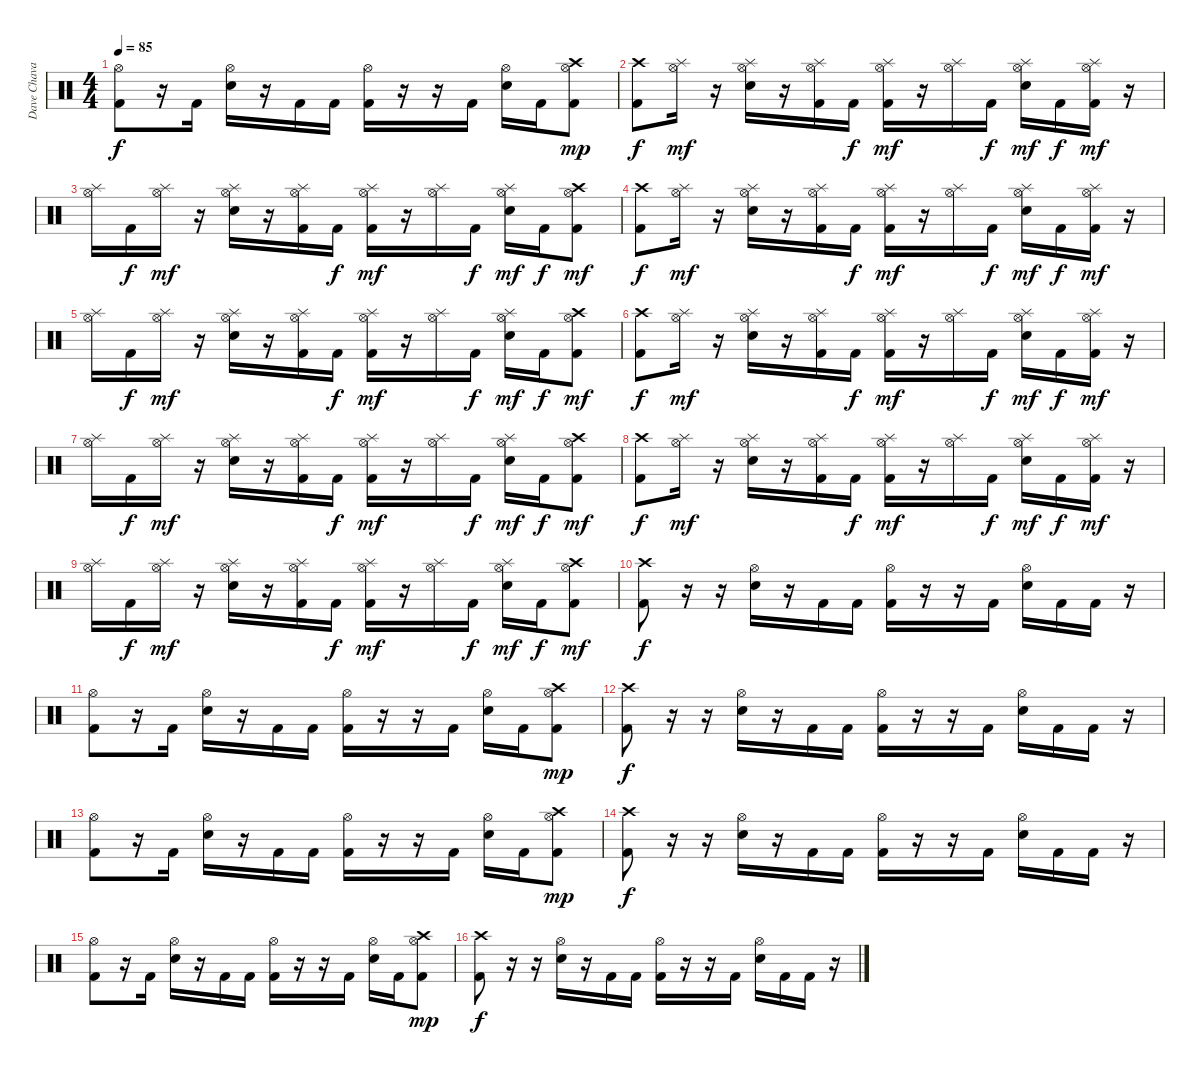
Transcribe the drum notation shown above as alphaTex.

\track ("Dave Chavarri" "Dave Chava") {instrument percussion}
\staff {score}
\articulation defaults
\ts (4 4)
\tempo 85
\clef neutral
\ks c
("Hi-Hat (open)" "Kick (hit) 2").8{dy f} r.16 "Kick (hit) 2".16 ("Hi-Hat (open)" "Snare (hit) 2").16 r.16 "Kick (hit) 2".16 "Kick (hit) 2".16 ("Hi-Hat (open)" "Kick (hit) 2").16 r.16 r.16 "Kick (hit) 2".16 ("Hi-Hat (open)" "Snare (hit) 2").16 "Kick (hit) 2".16 ("Crash high (hit)" "Hi-Hat (open)" "Kick (hit) 2").8{dy mp} |
("Crash high (hit)" "Kick (hit) 2").8{dy f} ("Hi-Hat (open)" "Splash (hit)").16{dy mf} r.16 ("Hi-Hat (open)" "Splash (hit)" "Snare (hit) 2").16 r.16 ("Hi-Hat (open)" "Splash (hit)" "Kick (hit) 2").16 "Kick (hit) 2".16{dy f} ("Hi-Hat (open)" "Splash (hit)" "Kick (hit) 2").16{dy mf} r.16 ("Hi-Hat (open)" "Splash (hit)").16 "Kick (hit) 2".16{dy f} ("Hi-Hat (open)" "Splash (hit)" "Snare (hit) 2").16{dy mf} "Kick (hit) 2".16{dy f} ("Hi-Hat (open)" "Splash (hit)" "Kick (hit) 2").16{dy mf} r.16 |
("Hi-Hat (open)" "Splash (hit)").16 "Kick (hit) 2".16{dy f} ("Hi-Hat (open)" "Splash (hit)").16{dy mf} r.16 ("Hi-Hat (open)" "Splash (hit)" "Snare (hit) 2").16 r.16 ("Hi-Hat (open)" "Splash (hit)" "Kick (hit) 2").16 "Kick (hit) 2".16{dy f} ("Hi-Hat (open)" "Splash (hit)" "Kick (hit) 2").16{dy mf} r.16 ("Hi-Hat (open)" "Splash (hit)").16 "Kick (hit) 2".16{dy f} ("Hi-Hat (open)" "Splash (hit)" "Snare (hit) 2").16{dy mf} "Kick (hit) 2".16{dy f} ("Hi-Hat (open)" "Crash high (hit)" "Kick (hit) 2").8{dy mf} |
("Crash high (hit)" "Kick (hit) 2").8{dy f} ("Hi-Hat (open)" "Splash (hit)").16{dy mf} r.16 ("Hi-Hat (open)" "Splash (hit)" "Snare (hit) 2").16 r.16 ("Hi-Hat (open)" "Splash (hit)" "Kick (hit) 2").16 "Kick (hit) 2".16{dy f} ("Hi-Hat (open)" "Splash (hit)" "Kick (hit) 2").16{dy mf} r.16 ("Hi-Hat (open)" "Splash (hit)").16 "Kick (hit) 2".16{dy f} ("Hi-Hat (open)" "Splash (hit)" "Snare (hit) 2").16{dy mf} "Kick (hit) 2".16{dy f} ("Hi-Hat (open)" "Splash (hit)" "Kick (hit) 2").16{dy mf} r.16 |
("Hi-Hat (open)" "Splash (hit)").16 "Kick (hit) 2".16{dy f} ("Hi-Hat (open)" "Splash (hit)").16{dy mf} r.16 ("Hi-Hat (open)" "Splash (hit)" "Snare (hit) 2").16 r.16 ("Hi-Hat (open)" "Splash (hit)" "Kick (hit) 2").16 "Kick (hit) 2".16{dy f} ("Hi-Hat (open)" "Splash (hit)" "Kick (hit) 2").16{dy mf} r.16 ("Hi-Hat (open)" "Splash (hit)").16 "Kick (hit) 2".16{dy f} ("Hi-Hat (open)" "Splash (hit)" "Snare (hit) 2").16{dy mf} "Kick (hit) 2".16{dy f} ("Hi-Hat (open)" "Crash high (hit)" "Kick (hit) 2").8{dy mf} |
("Crash high (hit)" "Kick (hit) 2").8{dy f} ("Hi-Hat (open)" "Splash (hit)").16{dy mf} r.16 ("Hi-Hat (open)" "Splash (hit)" "Snare (hit) 2").16 r.16 ("Hi-Hat (open)" "Splash (hit)" "Kick (hit) 2").16 "Kick (hit) 2".16{dy f} ("Hi-Hat (open)" "Splash (hit)" "Kick (hit) 2").16{dy mf} r.16 ("Hi-Hat (open)" "Splash (hit)").16 "Kick (hit) 2".16{dy f} ("Hi-Hat (open)" "Splash (hit)" "Snare (hit) 2").16{dy mf} "Kick (hit) 2".16{dy f} ("Hi-Hat (open)" "Splash (hit)" "Kick (hit) 2").16{dy mf} r.16 |
("Hi-Hat (open)" "Splash (hit)").16 "Kick (hit) 2".16{dy f} ("Hi-Hat (open)" "Splash (hit)").16{dy mf} r.16 ("Hi-Hat (open)" "Splash (hit)" "Snare (hit) 2").16 r.16 ("Hi-Hat (open)" "Splash (hit)" "Kick (hit) 2").16 "Kick (hit) 2".16{dy f} ("Hi-Hat (open)" "Splash (hit)" "Kick (hit) 2").16{dy mf} r.16 ("Hi-Hat (open)" "Splash (hit)").16 "Kick (hit) 2".16{dy f} ("Hi-Hat (open)" "Splash (hit)" "Snare (hit) 2").16{dy mf} "Kick (hit) 2".16{dy f} ("Hi-Hat (open)" "Crash high (hit)" "Kick (hit) 2").8{dy mf} |
("Crash high (hit)" "Kick (hit) 2").8{dy f} ("Hi-Hat (open)" "Splash (hit)").16{dy mf} r.16 ("Hi-Hat (open)" "Splash (hit)" "Snare (hit) 2").16 r.16 ("Hi-Hat (open)" "Splash (hit)" "Kick (hit) 2").16 "Kick (hit) 2".16{dy f} ("Hi-Hat (open)" "Splash (hit)" "Kick (hit) 2").16{dy mf} r.16 ("Hi-Hat (open)" "Splash (hit)").16 "Kick (hit) 2".16{dy f} ("Hi-Hat (open)" "Splash (hit)" "Snare (hit) 2").16{dy mf} "Kick (hit) 2".16{dy f} ("Hi-Hat (open)" "Splash (hit)" "Kick (hit) 2").16{dy mf} r.16 |
("Hi-Hat (open)" "Splash (hit)").16 "Kick (hit) 2".16{dy f} ("Hi-Hat (open)" "Splash (hit)").16{dy mf} r.16 ("Hi-Hat (open)" "Splash (hit)" "Snare (hit) 2").16 r.16 ("Hi-Hat (open)" "Splash (hit)" "Kick (hit) 2").16 "Kick (hit) 2".16{dy f} ("Hi-Hat (open)" "Splash (hit)" "Kick (hit) 2").16{dy mf} r.16 ("Hi-Hat (open)" "Splash (hit)").16 "Kick (hit) 2".16{dy f} ("Hi-Hat (open)" "Splash (hit)" "Snare (hit) 2").16{dy mf} "Kick (hit) 2".16{dy f} ("Hi-Hat (open)" "Crash high (hit)" "Kick (hit) 2").8{dy mf} |
("Crash high (hit)" "Kick (hit) 2").8{dy f} r.16 r.16 ("Hi-Hat (open)" "Snare (hit) 2").16 r.16 "Kick (hit) 2".16 "Kick (hit) 2".16 ("Hi-Hat (open)" "Kick (hit) 2").16 r.16 r.16 "Kick (hit) 2".16 ("Hi-Hat (open)" "Snare (hit) 2").16 "Kick (hit) 2".16 "Kick (hit) 2".16 r.16 |
("Hi-Hat (open)" "Kick (hit) 2").8 r.16 "Kick (hit) 2".16 ("Hi-Hat (open)" "Snare (hit) 2").16 r.16 "Kick (hit) 2".16 "Kick (hit) 2".16 ("Hi-Hat (open)" "Kick (hit) 2").16 r.16 r.16 "Kick (hit) 2".16 ("Hi-Hat (open)" "Snare (hit) 2").16 "Kick (hit) 2".16 ("Crash high (hit)" "Hi-Hat (open)" "Kick (hit) 2").8{dy mp} |
("Crash high (hit)" "Kick (hit) 2").8{dy f} r.16 r.16 ("Hi-Hat (open)" "Snare (hit) 2").16 r.16 "Kick (hit) 2".16 "Kick (hit) 2".16 ("Hi-Hat (open)" "Kick (hit) 2").16 r.16 r.16 "Kick (hit) 2".16 ("Hi-Hat (open)" "Snare (hit) 2").16 "Kick (hit) 2".16 "Kick (hit) 2".16 r.16 |
("Hi-Hat (open)" "Kick (hit) 2").8 r.16 "Kick (hit) 2".16 ("Hi-Hat (open)" "Snare (hit) 2").16 r.16 "Kick (hit) 2".16 "Kick (hit) 2".16 ("Hi-Hat (open)" "Kick (hit) 2").16 r.16 r.16 "Kick (hit) 2".16 ("Hi-Hat (open)" "Snare (hit) 2").16 "Kick (hit) 2".16 ("Crash high (hit)" "Hi-Hat (open)" "Kick (hit) 2").8{dy mp} |
("Crash high (hit)" "Kick (hit) 2").8{dy f} r.16 r.16 ("Hi-Hat (open)" "Snare (hit) 2").16 r.16 "Kick (hit) 2".16 "Kick (hit) 2".16 ("Hi-Hat (open)" "Kick (hit) 2").16 r.16 r.16 "Kick (hit) 2".16 ("Hi-Hat (open)" "Snare (hit) 2").16 "Kick (hit) 2".16 "Kick (hit) 2".16 r.16 |
("Hi-Hat (open)" "Kick (hit) 2").8 r.16 "Kick (hit) 2".16 ("Hi-Hat (open)" "Snare (hit) 2").16 r.16 "Kick (hit) 2".16 "Kick (hit) 2".16 ("Hi-Hat (open)" "Kick (hit) 2").16 r.16 r.16 "Kick (hit) 2".16 ("Hi-Hat (open)" "Snare (hit) 2").16 "Kick (hit) 2".16 ("Crash high (hit)" "Hi-Hat (open)" "Kick (hit) 2").8{dy mp} |
("Crash high (hit)" "Kick (hit) 2").8{dy f} r.16 r.16 ("Hi-Hat (open)" "Snare (hit) 2").16 r.16 "Kick (hit) 2".16 "Kick (hit) 2".16 ("Hi-Hat (open)" "Kick (hit) 2").16 r.16 r.16 "Kick (hit) 2".16 ("Hi-Hat (open)" "Snare (hit) 2").16 "Kick (hit) 2".16 "Kick (hit) 2".16 r.16
